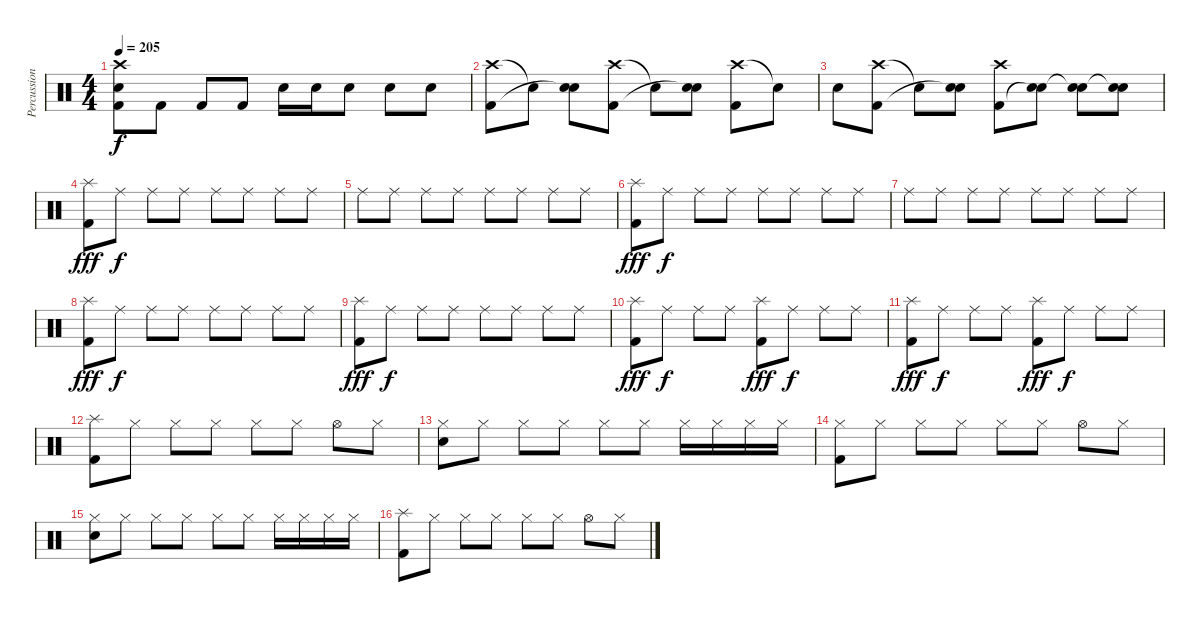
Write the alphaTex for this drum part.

\track ("Percussions" "Percussion") {instrument percussion}
\staff {score}
\articulation defaults
\ts (4 4)
\tempo 205
\clef neutral
\ks c
("Crash high (hit)" "Snare (hit) 2" "Kick (hit) 2").8{dy f} "Kick (hit) 2".8 "Kick (hit) 2".8 "Kick (hit) 2".8 "Snare (hit) 2".16 "Snare (hit) 2".16 "Snare (hit) 2".8 "Snare (hit) 2".8 "Snare (hit) 2".8 |
("Crash high (hit)" "Kick (hit) 2").8 "Snare (hit)"{t}.8 ("Snare (hit) 2" "Snare (hit)"{t}).8 ("Crash high (hit)" "Kick (hit) 2").8 "Snare (hit)"{t}.8 ("Snare (hit) 2" "Snare (hit)"{t}).8 ("Crash high (hit)" "Kick (hit) 2").8 "Snare (hit)"{t}.8 |
"Snare (hit) 2".8 ("Crash high (hit)" "Kick (hit) 2").8 "Snare (hit)"{t}.8 ("Snare (hit) 2" "Snare (hit)"{t}).8 ("Crash high (hit)" "Kick (hit) 2").8 ("Snare (hit) 2" "Snare (hit)"{t}).8 ("Snare (hit) 2" "Snare (hit)"{t}).8 ("Snare (hit) 2" "Snare (hit)"{t}).8 |
("Splash (hit)" "Kick (hit) 2").8{dy fff} "Ride (middle)".8{dy f} "Ride (middle)".8 "Ride (middle)".8 "Ride (middle)".8 "Ride (middle)".8 "Ride (middle)".8 "Ride (middle)".8 |
"Ride (middle)".8 "Ride (middle)".8 "Ride (middle)".8 "Ride (middle)".8 "Ride (middle)".8 "Ride (middle)".8 "Ride (middle)".8 "Ride (middle)".8 |
("Splash (hit)" "Kick (hit) 2").8{dy fff} "Ride (middle)".8{dy f} "Ride (middle)".8 "Ride (middle)".8 "Ride (middle)".8 "Ride (middle)".8 "Ride (middle)".8 "Ride (middle)".8 |
"Ride (middle)".8 "Ride (middle)".8 "Ride (middle)".8 "Ride (middle)".8 "Ride (middle)".8 "Ride (middle)".8 "Ride (middle)".8 "Ride (middle)".8 |
("Splash (hit)" "Kick (hit) 2").8{dy fff} "Ride (middle)".8{dy f} "Ride (middle)".8 "Ride (middle)".8 "Ride (middle)".8 "Ride (middle)".8 "Ride (middle)".8 "Ride (middle)".8 |
("Splash (hit)" "Kick (hit) 2").8{dy fff} "Ride (middle)".8{dy f} "Ride (middle)".8 "Ride (middle)".8 "Ride (middle)".8 "Ride (middle)".8 "Ride (middle)".8 "Ride (middle)".8 |
("Splash (hit)" "Kick (hit) 2").8{dy fff} "Ride (middle)".8{dy f} "Ride (middle)".8 "Ride (middle)".8 ("Splash (hit)" "Kick (hit) 2").8{dy fff} "Ride (middle)".8{dy f} "Ride (middle)".8 "Ride (middle)".8 |
("Splash (hit)" "Kick (hit) 2").8{dy fff} "Ride (middle)".8{dy f} "Ride (middle)".8 "Ride (middle)".8 ("Splash (hit)" "Kick (hit) 2").8{dy fff} "Ride (middle)".8{dy f} "Ride (middle)".8 "Ride (middle)".8 |
("Splash (hit)" "Kick (hit) 2").8 "Hi-Hat (closed)".8 "Hi-Hat (closed)".8 "Hi-Hat (closed)".8 "Hi-Hat (closed)".8 "Hi-Hat (closed)".8 "Hi-Hat (open)".8 "Hi-Hat (closed)".8 |
("Hi-Hat (closed)" "Snare (hit) 2").8 "Hi-Hat (closed)".8 "Hi-Hat (closed)".8 "Hi-Hat (closed)".8 "Hi-Hat (closed)".8 "Hi-Hat (closed)".8 "Hi-Hat (closed)".16 "Hi-Hat (closed)".16 "Hi-Hat (closed)".16 "Hi-Hat (closed)".16 |
("Hi-Hat (closed)" "Kick (hit) 2").8 "Hi-Hat (closed)".8 "Hi-Hat (closed)".8 "Hi-Hat (closed)".8 "Hi-Hat (closed)".8 "Hi-Hat (closed)".8 "Hi-Hat (open)".8 "Hi-Hat (closed)".8 |
("Hi-Hat (closed)" "Snare (hit) 2").8 "Hi-Hat (closed)".8 "Hi-Hat (closed)".8 "Hi-Hat (closed)".8 "Hi-Hat (closed)".8 "Hi-Hat (closed)".8 "Hi-Hat (closed)".16 "Hi-Hat (closed)".16 "Hi-Hat (closed)".16 "Hi-Hat (closed)".16 |
("Splash (hit)" "Kick (hit) 2").8 "Hi-Hat (closed)".8 "Hi-Hat (closed)".8 "Hi-Hat (closed)".8 "Hi-Hat (closed)".8 "Hi-Hat (closed)".8 "Hi-Hat (open)".8 "Hi-Hat (closed)".8
